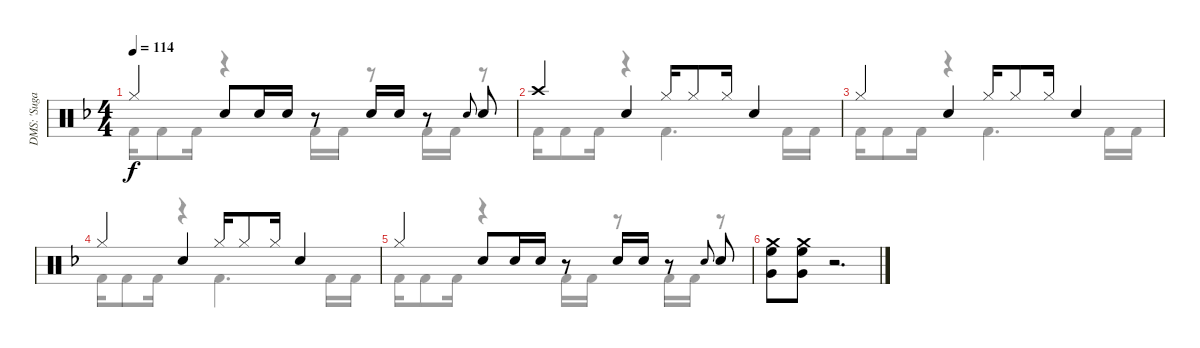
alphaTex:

\track ("DMS: 'Sugarfoot' Moffett" "DMS: 'Suga") {instrument percussion}
\staff {score}
\articulation defaults
\voice
\ts (4 4)
\tempo 114
\clef neutral
\ks f "Hi-Hat (closed)".4{dy f} "Snare (hit) 2".8 "Electric Snare (hit)".16 "Electric Snare (hit)".16
r.8 "Electric Snare (hit)".16 "Electric Snare (hit)".16 r.8 "Electric Snare (hit)".8{gr onbeat} "Snare (hit) 2".8 |
"Crash high (hit)".4 "Snare (hit) 2".4 "Hi-Hat (closed)".16 "Hi-Hat (closed)".8 "Hi-Hat (closed)".16 "Snare (hit) 2".4 |
"Hi-Hat (closed)".4 "Snare (hit) 2".4 "Hi-Hat (closed)".16 "Hi-Hat (closed)".8 "Hi-Hat (closed)".16 "Snare (hit) 2".4 |
"Hi-Hat (closed)".4 "Snare (hit) 2".4 "Hi-Hat (closed)".16 "Hi-Hat (closed)".8 "Hi-Hat (closed)".16 "Snare (hit) 2".4 |
"Hi-Hat (closed)".4 "Snare (hit) 2".8 "Electric Snare (hit)".16 "Electric Snare (hit)".16 r.8 "Electric Snare (hit)".16 "Electric Snare (hit)".16 r.8 "Electric Snare (hit)".8{gr onbeat} "Snare (hit) 2".8 |
("High Floor Tom (hit)" "Crash medium (hit)" "Very Low Tom (hit)").8{beam merge} ("High Floor Tom (hit)" "Crash medium (hit)" "Very Low Tom (hit)").8 r.2{d} |
\voice
\clef neutral
\ottava regular
\simile none
\ks f "Kick (hit) 2".16{dy f} "Kick (hit) 2".8 "Kick (hit) 2".16
r.4 "Kick (hit) 2".16 "Kick (hit) 2".16 r.8 "Kick (hit) 2".16 "Kick (hit) 2".16 r.8 |
"Kick (hit) 2".16 "Kick (hit) 2".8 "Kick (hit) 2".16 r.4 "Kick (hit) 2".4{d} "Kick (hit) 2".16 "Kick (hit) 2".16 |
"Kick (hit) 2".16 "Kick (hit) 2".8 "Kick (hit) 2".16 r.4 "Kick (hit) 2".4{d} "Kick (hit) 2".16 "Kick (hit) 2".16 |
"Kick (hit) 2".16 "Kick (hit) 2".8 "Kick (hit) 2".16 r.4 "Kick (hit) 2".4{d} "Kick (hit) 2".16 "Kick (hit) 2".16 |
"Kick (hit) 2".16 "Kick (hit) 2".8 "Kick (hit) 2".16 r.4 "Kick (hit) 2".16 "Kick (hit) 2".16 r.8 "Kick (hit) 2".16 "Kick (hit) 2".16 r.8 |
|
